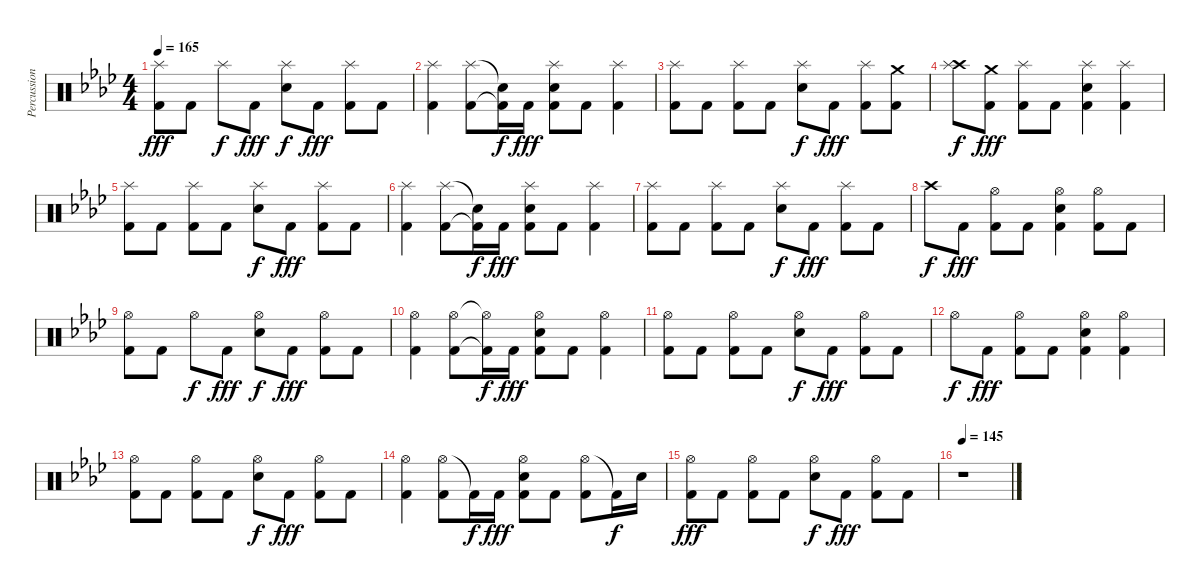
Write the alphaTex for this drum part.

\track ("Percussion" "Percussion") {instrument percussion}
\staff {score}
\articulation defaults
\ts (4 4)
\tempo 165
\clef neutral
\ks ab
("Splash (hit)" "Kick (hit) 2").8{dy fff} "Kick (hit) 2".8 "Splash (hit)".8{dy f} "Kick (hit) 2".8{dy fff} ("Splash (hit)" "Electric Snare (hit)").8{dy f} "Kick (hit) 2".8{dy fff} ("Splash (hit)" "Kick (hit) 2").8 "Kick (hit) 2".8 |
("Splash (hit)" "Kick (hit) 2").4 ("Splash (hit)" "Kick (hit) 2").8 ("Snare (hit)"{t} "Kick (hit) 2"{t}).16{dy f} "Kick (hit) 2".16{dy fff} ("Splash (hit)" "Electric Snare (hit)" "Kick (hit) 2").8 "Kick (hit) 2".8 ("Splash (hit)" "Kick (hit) 2").4 |
("Splash (hit)" "Kick (hit) 2").8 "Kick (hit) 2".8 ("Splash (hit)" "Kick (hit) 2").8 "Kick (hit) 2".8 ("Splash (hit)" "Electric Snare (hit)").8{dy f} "Kick (hit) 2".8{dy fff} ("Splash (hit)" "Kick (hit) 2").8 ("Crash medium (hit)" "Kick (hit) 2").8 |
("Crash high (hit)" "Splash (hit)").8{dy f} ("Crash medium (hit)" "Kick (hit) 2").8{dy fff} ("Splash (hit)" "Kick (hit) 2").8 "Kick (hit) 2".8 ("Splash (hit)" "Electric Snare (hit)" "Kick (hit) 2").4 ("Splash (hit)" "Kick (hit) 2").4 |
("Splash (hit)" "Kick (hit) 2").8 "Kick (hit) 2".8 ("Splash (hit)" "Kick (hit) 2").8 "Kick (hit) 2".8 ("Splash (hit)" "Electric Snare (hit)").8{dy f} "Kick (hit) 2".8{dy fff} ("Splash (hit)" "Kick (hit) 2").8 "Kick (hit) 2".8 |
("Splash (hit)" "Kick (hit) 2").4 ("Splash (hit)" "Kick (hit) 2").8 ("Snare (hit)"{t} "Kick (hit) 2"{t}).16{dy f} "Kick (hit) 2".16{dy fff} ("Splash (hit)" "Electric Snare (hit)" "Kick (hit) 2").8 "Kick (hit) 2".8 ("Splash (hit)" "Kick (hit) 2").4 |
("Splash (hit)" "Kick (hit) 2").8 "Kick (hit) 2".8 ("Splash (hit)" "Kick (hit) 2").8 "Kick (hit) 2".8 ("Splash (hit)" "Electric Snare (hit)").8{dy f} "Kick (hit) 2".8{dy fff} ("Splash (hit)" "Kick (hit) 2").8 "Kick (hit) 2".8 |
"Crash high (hit)".8{dy f} "Kick (hit) 2".8{dy fff} ("Hi-Hat (open)" "Kick (hit) 2").8 "Kick (hit) 2".8 ("Hi-Hat (open)" "Electric Snare (hit)" "Kick (hit) 2").4 ("Hi-Hat (open)" "Kick (hit) 2").8 "Kick (hit) 2".8 |
("Hi-Hat (open)" "Kick (hit) 2").8 "Kick (hit) 2".8 "Hi-Hat (open)".8{dy f} "Kick (hit) 2".8{dy fff} ("Hi-Hat (open)" "Electric Snare (hit)").8{dy f} "Kick (hit) 2".8{dy fff} ("Hi-Hat (open)" "Kick (hit) 2").8 "Kick (hit) 2".8 |
("Hi-Hat (open)" "Kick (hit) 2").4 ("Hi-Hat (open)" "Kick (hit) 2").8 ("Hi-Hat (open)"{t} "Kick (hit) 2"{t}).16{dy f} "Kick (hit) 2".16{dy fff} ("Hi-Hat (open)" "Electric Snare (hit)" "Kick (hit) 2").8 "Kick (hit) 2".8 ("Hi-Hat (open)" "Kick (hit) 2").4 |
("Hi-Hat (open)" "Kick (hit) 2").8 "Kick (hit) 2".8 ("Hi-Hat (open)" "Kick (hit) 2").8 "Kick (hit) 2".8 ("Hi-Hat (open)" "Electric Snare (hit)").8{dy f} "Kick (hit) 2".8{dy fff} ("Hi-Hat (open)" "Kick (hit) 2").8 "Kick (hit) 2".8 |
"Hi-Hat (open)".8{dy f} "Kick (hit) 2".8{dy fff} ("Hi-Hat (open)" "Kick (hit) 2").8 "Kick (hit) 2".8 ("Hi-Hat (open)" "Electric Snare (hit)" "Kick (hit) 2").4 ("Hi-Hat (open)" "Kick (hit) 2").4 |
("Hi-Hat (open)" "Kick (hit) 2").8 "Kick (hit) 2".8 ("Hi-Hat (open)" "Kick (hit) 2").8 "Kick (hit) 2".8 ("Hi-Hat (open)" "Electric Snare (hit)").8{dy f} "Kick (hit) 2".8{dy fff} ("Hi-Hat (open)" "Kick (hit) 2").8 "Kick (hit) 2".8 |
("Hi-Hat (open)" "Kick (hit) 2").4 ("Hi-Hat (open)" "Kick (hit) 2").8 "Kick (hit) 2"{t}.16{dy f} "Kick (hit) 2".16{dy fff} ("Hi-Hat (open)" "Electric Snare (hit)" "Kick (hit) 2").8 "Kick (hit) 2".8 ("Hi-Hat (open)" "Kick (hit) 2").8 "Kick (hit) 2"{t}.16{dy f} "Electric Snare (hit)".16 |
("Hi-Hat (open)" "Kick (hit) 2").8{dy fff} "Kick (hit) 2".8 ("Hi-Hat (open)" "Kick (hit) 2").8 "Kick (hit) 2".8 ("Hi-Hat (open)" "Electric Snare (hit)").8{dy f} "Kick (hit) 2".8{dy fff} ("Hi-Hat (open)" "Kick (hit) 2").8 "Kick (hit) 2".8 |
\tempo 145
r.1
